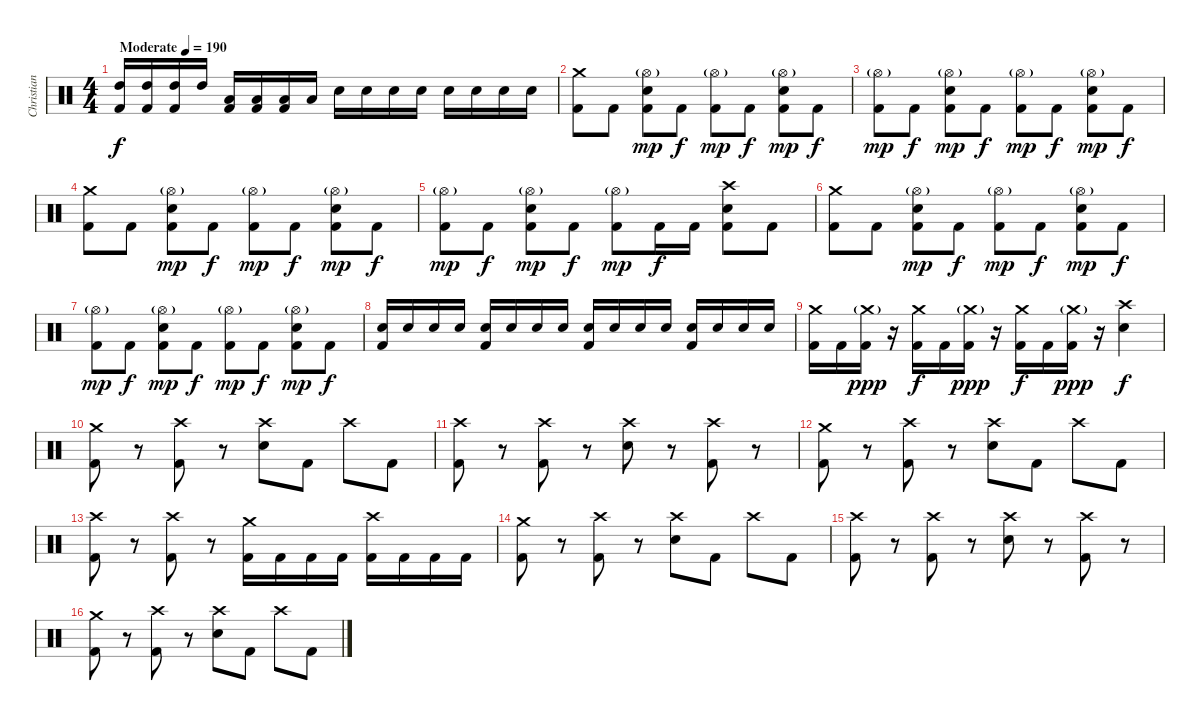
\track ("Christian" "Christian") {instrument percussion}
\staff {score}
\articulation defaults
\ts (4 4)
\tempo (190 "Moderate")
\clef neutral
\ks c
("High Tom (hit)" "Kick (hit) 2").16{dy f} ("High Tom (hit)" "Kick (hit) 2").16 ("High Tom (hit)" "Kick (hit) 2").16 "High Tom (hit)".16 ("Low Tom (hit)" "Kick (hit) 2").16 ("Low Tom (hit)" "Kick (hit) 2").16 ("Low Tom (hit)" "Kick (hit) 2").16 "Low Tom (hit)".16 "Electric Snare (hit)".16 "Electric Snare (hit)".16 "Electric Snare (hit)".16 "Electric Snare (hit)".16 "Electric Snare (hit)".16 "Electric Snare (hit)".16 "Electric Snare (hit)".16 "Electric Snare (hit)".16 |
("Crash medium (hit)" "Kick (hit) 2").8 "Kick (hit) 2".8 ("Hi-Hat (open)"{g} "Electric Snare (hit)" "Kick (hit) 2").8{dy mp} "Kick (hit) 2".8{dy f} ("Hi-Hat (open)"{g} "Kick (hit) 2").8{dy mp} "Kick (hit) 2".8{dy f} ("Hi-Hat (open)"{g} "Electric Snare (hit)" "Kick (hit) 2").8{dy mp} "Kick (hit) 2".8{dy f} |
("Hi-Hat (open)"{g} "Kick (hit) 2").8{dy mp} "Kick (hit) 2".8{dy f} ("Hi-Hat (open)"{g} "Electric Snare (hit)" "Kick (hit) 2").8{dy mp} "Kick (hit) 2".8{dy f} ("Hi-Hat (open)"{g} "Kick (hit) 2").8{dy mp} "Kick (hit) 2".8{dy f} ("Hi-Hat (open)"{g} "Electric Snare (hit)" "Kick (hit) 2").8{dy mp} "Kick (hit) 2".8{dy f} |
("Crash medium (hit)" "Kick (hit) 2").8 "Kick (hit) 2".8 ("Hi-Hat (open)"{g} "Electric Snare (hit)" "Kick (hit) 2").8{dy mp} "Kick (hit) 2".8{dy f} ("Hi-Hat (open)"{g} "Kick (hit) 2").8{dy mp} "Kick (hit) 2".8{dy f} ("Hi-Hat (open)"{g} "Electric Snare (hit)" "Kick (hit) 2").8{dy mp} "Kick (hit) 2".8{dy f} |
("Hi-Hat (open)"{g} "Kick (hit) 2").8{dy mp} "Kick (hit) 2".8{dy f} ("Hi-Hat (open)"{g} "Electric Snare (hit)" "Kick (hit) 2").8{dy mp} "Kick (hit) 2".8{dy f} ("Hi-Hat (open)"{g} "Kick (hit) 2").8{dy mp} "Kick (hit) 2".16{dy f} "Kick (hit) 2".16 ("Crash high (hit)" "Electric Snare (hit)" "Kick (hit) 2").8 "Kick (hit) 2".8 |
("Crash medium (hit)" "Kick (hit) 2").8 "Kick (hit) 2".8 ("Hi-Hat (open)"{g} "Electric Snare (hit)" "Kick (hit) 2").8{dy mp} "Kick (hit) 2".8{dy f} ("Hi-Hat (open)"{g} "Kick (hit) 2").8{dy mp} "Kick (hit) 2".8{dy f} ("Hi-Hat (open)"{g} "Electric Snare (hit)" "Kick (hit) 2").8{dy mp} "Kick (hit) 2".8{dy f} |
("Hi-Hat (open)"{g} "Kick (hit) 2").8{dy mp} "Kick (hit) 2".8{dy f} ("Hi-Hat (open)"{g} "Electric Snare (hit)" "Kick (hit) 2").8{dy mp} "Kick (hit) 2".8{dy f} ("Hi-Hat (open)"{g} "Kick (hit) 2").8{dy mp} "Kick (hit) 2".8{dy f} ("Hi-Hat (open)"{g} "Electric Snare (hit)" "Kick (hit) 2").8{dy mp} "Kick (hit) 2".8{dy f} |
("Electric Snare (hit)" "Kick (hit) 2").16 "Electric Snare (hit)".16 "Electric Snare (hit)".16 "Electric Snare (hit)".16 ("Electric Snare (hit)" "Kick (hit) 2").16 "Electric Snare (hit)".16 "Electric Snare (hit)".16 "Electric Snare (hit)".16 ("Electric Snare (hit)" "Kick (hit) 2").16 "Electric Snare (hit)".16 "Electric Snare (hit)".16 "Electric Snare (hit)".16 ("Electric Snare (hit)" "Kick (hit) 2").16 "Electric Snare (hit)".16 "Electric Snare (hit)".16 "Electric Snare (hit)".16 |
("Crash medium (hit)" "Kick (hit) 2").16 "Kick (hit) 2".16 ("Crash medium (hit)"{g} "Kick (hit) 2").16{dy ppp} r.16 ("Crash medium (hit)" "Kick (hit) 2").16{dy f} "Kick (hit) 2".16 ("Crash medium (hit)"{g} "Kick (hit) 2").16{dy ppp} r.16 ("Crash medium (hit)" "Kick (hit) 2").16{dy f} "Kick (hit) 2".16 ("Crash medium (hit)"{g} "Kick (hit) 2").16{dy ppp} r.16 ("Crash high (hit)" "Electric Snare (hit)").4{dy f} |
("Crash medium (hit)" "Kick (hit) 2").8 r.8 ("Crash high (hit)" "Kick (hit) 2").8 r.8 ("Crash high (hit)" "Electric Snare (hit)").8 "Kick (hit) 2".8 "Crash high (hit)".8 "Kick (hit) 2".8 |
("Crash high (hit)" "Kick (hit) 2").8 r.8 ("Crash high (hit)" "Kick (hit) 2").8 r.8 ("Crash high (hit)" "Electric Snare (hit)").8 r.8 ("Crash high (hit)" "Kick (hit) 2").8 r.8 |
("Crash medium (hit)" "Kick (hit) 2").8 r.8 ("Crash high (hit)" "Kick (hit) 2").8 r.8 ("Crash high (hit)" "Electric Snare (hit)").8 "Kick (hit) 2".8 "Crash high (hit)".8 "Kick (hit) 2".8 |
("Crash high (hit)" "Kick (hit) 2").8 r.8 ("Crash high (hit)" "Kick (hit) 2").8 r.8 ("Crash medium (hit)" "Kick (hit) 2").16 "Kick (hit) 2".16 "Kick (hit) 2".16 "Kick (hit) 2".16 ("Crash high (hit)" "Kick (hit) 2").16 "Kick (hit) 2".16 "Kick (hit) 2".16 "Kick (hit) 2".16 |
("Crash medium (hit)" "Kick (hit) 2").8 r.8 ("Crash high (hit)" "Kick (hit) 2").8 r.8 ("Crash high (hit)" "Electric Snare (hit)").8 "Kick (hit) 2".8 "Crash high (hit)".8 "Kick (hit) 2".8 |
("Crash high (hit)" "Kick (hit) 2").8 r.8 ("Crash high (hit)" "Kick (hit) 2").8 r.8 ("Crash high (hit)" "Electric Snare (hit)").8 r.8 ("Crash high (hit)" "Kick (hit) 2").8 r.8 |
("Crash medium (hit)" "Kick (hit) 2").8 r.8 ("Crash high (hit)" "Kick (hit) 2").8 r.8 ("Crash high (hit)" "Electric Snare (hit)").8 "Kick (hit) 2".8 "Crash high (hit)".8 "Kick (hit) 2".8
